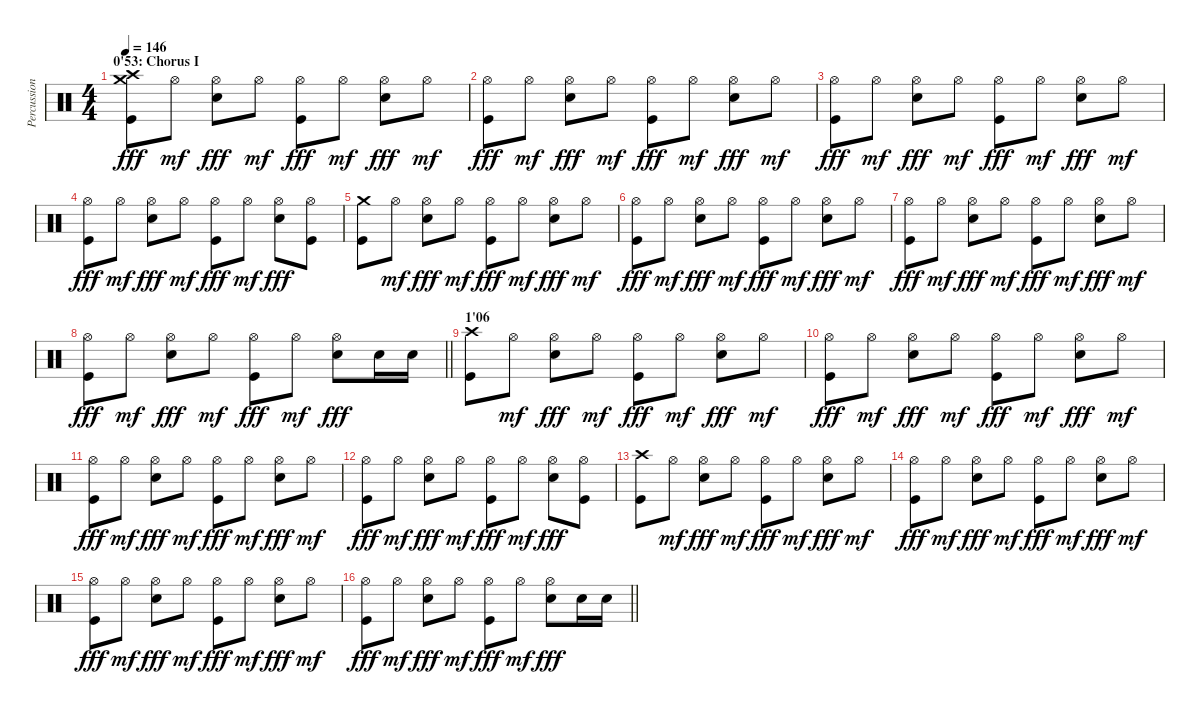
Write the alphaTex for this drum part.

\track ("Percussions" "Percussion") {instrument percussion}
\staff {score}
\articulation defaults
\ts (4 4)
\section ("" "0'53: Chorus I")
\tempo 146
\clef neutral
\ks c
("Crash high (hit)" "Crash medium (hit)" "Kick (hit)").8{dy fff} "Hi-Hat (open)".8{dy mf} ("Hi-Hat (open)" "Snare (hit) 2").8{dy fff} "Hi-Hat (open)".8{dy mf} ("Hi-Hat (open)" "Kick (hit)").8{dy fff} "Hi-Hat (open)".8{dy mf} ("Hi-Hat (open)" "Snare (hit) 2").8{dy fff} "Hi-Hat (open)".8{dy mf} |
("Hi-Hat (open)" "Kick (hit)").8{dy fff} "Hi-Hat (open)".8{dy mf} ("Hi-Hat (open)" "Snare (hit) 2").8{dy fff} "Hi-Hat (open)".8{dy mf} ("Hi-Hat (open)" "Kick (hit)").8{dy fff} "Hi-Hat (open)".8{dy mf} ("Hi-Hat (open)" "Snare (hit) 2").8{dy fff} "Hi-Hat (open)".8{dy mf} |
("Hi-Hat (open)" "Kick (hit)").8{dy fff} "Hi-Hat (open)".8{dy mf} ("Hi-Hat (open)" "Snare (hit) 2").8{dy fff} "Hi-Hat (open)".8{dy mf} ("Hi-Hat (open)" "Kick (hit)").8{dy fff} "Hi-Hat (open)".8{dy mf} ("Hi-Hat (open)" "Snare (hit) 2").8{dy fff} "Hi-Hat (open)".8{dy mf} |
("Hi-Hat (open)" "Kick (hit)").8{dy fff} "Hi-Hat (open)".8{dy mf} ("Hi-Hat (open)" "Snare (hit) 2").8{dy fff} "Hi-Hat (open)".8{dy mf} ("Hi-Hat (open)" "Kick (hit)").8{dy fff} "Hi-Hat (open)".8{dy mf} ("Hi-Hat (open)" "Snare (hit) 2").8{dy fff} ("Hi-Hat (open)" "Kick (hit)").8 |
("Crash medium (hit)" "Kick (hit)").8 "Hi-Hat (open)".8{dy mf} ("Hi-Hat (open)" "Snare (hit) 2").8{dy fff} "Hi-Hat (open)".8{dy mf} ("Hi-Hat (open)" "Kick (hit)").8{dy fff} "Hi-Hat (open)".8{dy mf} ("Hi-Hat (open)" "Snare (hit) 2").8{dy fff} "Hi-Hat (open)".8{dy mf} |
("Hi-Hat (open)" "Kick (hit)").8{dy fff} "Hi-Hat (open)".8{dy mf} ("Hi-Hat (open)" "Snare (hit) 2").8{dy fff} "Hi-Hat (open)".8{dy mf} ("Hi-Hat (open)" "Kick (hit)").8{dy fff} "Hi-Hat (open)".8{dy mf} ("Hi-Hat (open)" "Snare (hit) 2").8{dy fff} "Hi-Hat (open)".8{dy mf} |
("Hi-Hat (open)" "Kick (hit)").8{dy fff} "Hi-Hat (open)".8{dy mf} ("Hi-Hat (open)" "Snare (hit) 2").8{dy fff} "Hi-Hat (open)".8{dy mf} ("Hi-Hat (open)" "Kick (hit)").8{dy fff} "Hi-Hat (open)".8{dy mf} ("Hi-Hat (open)" "Snare (hit) 2").8{dy fff} "Hi-Hat (open)".8{dy mf} |
\barLineRight lightlight
("Hi-Hat (open)" "Kick (hit)").8{dy fff} "Hi-Hat (open)".8{dy mf} ("Hi-Hat (open)" "Snare (hit) 2").8{dy fff} "Hi-Hat (open)".8{dy mf} ("Hi-Hat (open)" "Kick (hit)").8{dy fff} "Hi-Hat (open)".8{dy mf} ("Hi-Hat (open)" "Snare (hit) 2").8{dy fff} "Snare (hit) 2".16 "Snare (hit) 2".16 |
\section ("" "1'06")
("Crash high (hit)" "Kick (hit)").8 "Hi-Hat (open)".8{dy mf} ("Hi-Hat (open)" "Snare (hit) 2").8{dy fff} "Hi-Hat (open)".8{dy mf} ("Hi-Hat (open)" "Kick (hit)").8{dy fff} "Hi-Hat (open)".8{dy mf} ("Hi-Hat (open)" "Snare (hit) 2").8{dy fff} "Hi-Hat (open)".8{dy mf} |
("Hi-Hat (open)" "Kick (hit)").8{dy fff} "Hi-Hat (open)".8{dy mf} ("Hi-Hat (open)" "Snare (hit) 2").8{dy fff} "Hi-Hat (open)".8{dy mf} ("Hi-Hat (open)" "Kick (hit)").8{dy fff} "Hi-Hat (open)".8{dy mf} ("Hi-Hat (open)" "Snare (hit) 2").8{dy fff} "Hi-Hat (open)".8{dy mf} |
("Hi-Hat (open)" "Kick (hit)").8{dy fff} "Hi-Hat (open)".8{dy mf} ("Hi-Hat (open)" "Snare (hit) 2").8{dy fff} "Hi-Hat (open)".8{dy mf} ("Hi-Hat (open)" "Kick (hit)").8{dy fff} "Hi-Hat (open)".8{dy mf} ("Hi-Hat (open)" "Snare (hit) 2").8{dy fff} "Hi-Hat (open)".8{dy mf} |
("Hi-Hat (open)" "Kick (hit)").8{dy fff} "Hi-Hat (open)".8{dy mf} ("Hi-Hat (open)" "Snare (hit) 2").8{dy fff} "Hi-Hat (open)".8{dy mf} ("Hi-Hat (open)" "Kick (hit)").8{dy fff} "Hi-Hat (open)".8{dy mf} ("Hi-Hat (open)" "Snare (hit) 2").8{dy fff} ("Hi-Hat (open)" "Kick (hit)").8 |
("Crash high (hit)" "Kick (hit)").8 "Hi-Hat (open)".8{dy mf} ("Hi-Hat (open)" "Snare (hit) 2").8{dy fff} "Hi-Hat (open)".8{dy mf} ("Hi-Hat (open)" "Kick (hit)").8{dy fff} "Hi-Hat (open)".8{dy mf} ("Hi-Hat (open)" "Snare (hit) 2").8{dy fff} "Hi-Hat (open)".8{dy mf} |
("Hi-Hat (open)" "Kick (hit)").8{dy fff} "Hi-Hat (open)".8{dy mf} ("Hi-Hat (open)" "Snare (hit) 2").8{dy fff} "Hi-Hat (open)".8{dy mf} ("Hi-Hat (open)" "Kick (hit)").8{dy fff} "Hi-Hat (open)".8{dy mf} ("Hi-Hat (open)" "Snare (hit) 2").8{dy fff} "Hi-Hat (open)".8{dy mf} |
("Hi-Hat (open)" "Kick (hit)").8{dy fff} "Hi-Hat (open)".8{dy mf} ("Hi-Hat (open)" "Snare (hit) 2").8{dy fff} "Hi-Hat (open)".8{dy mf} ("Hi-Hat (open)" "Kick (hit)").8{dy fff} "Hi-Hat (open)".8{dy mf} ("Hi-Hat (open)" "Snare (hit) 2").8{dy fff} "Hi-Hat (open)".8{dy mf} |
\barLineRight lightlight
("Hi-Hat (open)" "Kick (hit)").8{dy fff} "Hi-Hat (open)".8{dy mf} ("Hi-Hat (open)" "Snare (hit) 2").8{dy fff} "Hi-Hat (open)".8{dy mf} ("Hi-Hat (open)" "Kick (hit)").8{dy fff} "Hi-Hat (open)".8{dy mf} ("Hi-Hat (open)" "Snare (hit) 2").8{dy fff} "Snare (hit) 2".16 "Snare (hit) 2".16
